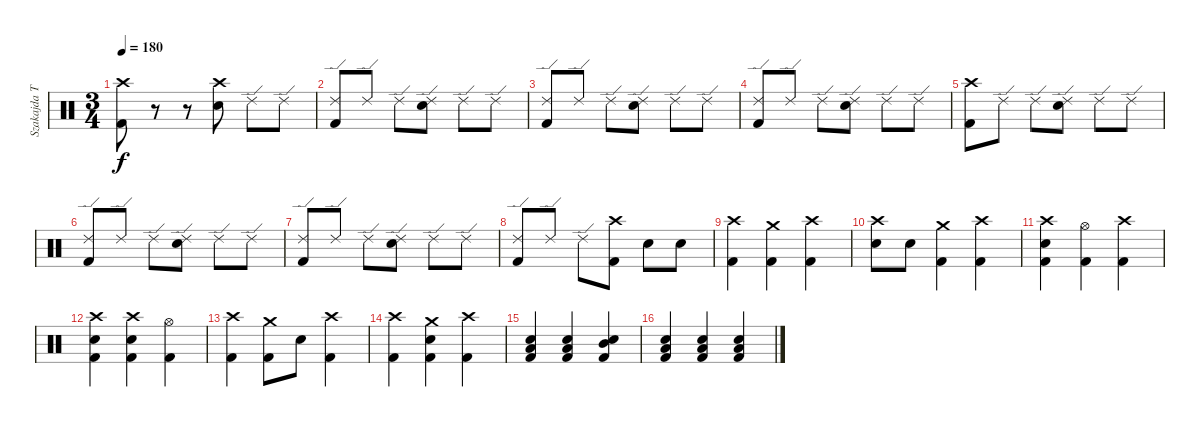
\track ("Szakajda Tibi" "Szakajda T") {instrument percussion}
\staff {score}
\articulation defaults
\ts (3 4)
\tempo 180
\clef neutral
\ks c
("Crash high (hit)" "Kick (hit) 2").8{dy f} r.8 r.8 ("Crash high (hit)" "Electric Snare (hit)").8 "Ride (edge) 2".8 "Ride (edge) 2".8 |
("Ride (edge) 2" "Kick (hit) 2").8 "Ride (edge) 2".8 "Ride (edge) 2".8 ("Ride (edge) 2" "Electric Snare (hit)").8 "Ride (edge) 2".8 "Ride (edge) 2".8 |
("Ride (edge) 2" "Kick (hit) 2").8 "Ride (edge) 2".8 "Ride (edge) 2".8 ("Ride (edge) 2" "Electric Snare (hit)").8 "Ride (edge) 2".8 "Ride (edge) 2".8 |
("Ride (edge) 2" "Kick (hit) 2").8 "Ride (edge) 2".8 "Ride (edge) 2".8 ("Ride (edge) 2" "Electric Snare (hit)").8 "Ride (edge) 2".8 "Ride (edge) 2".8 |
("Crash high (hit)" "Kick (hit) 2").8 "Ride (edge) 2".8 "Ride (edge) 2".8 ("Ride (edge) 2" "Electric Snare (hit)").8 "Ride (edge) 2".8 "Ride (edge) 2".8 |
("Ride (edge) 2" "Kick (hit) 2").8 "Ride (edge) 2".8 "Ride (edge) 2".8 ("Ride (edge) 2" "Electric Snare (hit)").8 "Ride (edge) 2".8 "Ride (edge) 2".8 |
("Ride (edge) 2" "Kick (hit) 2").8 "Ride (edge) 2".8 "Ride (edge) 2".8 ("Ride (edge) 2" "Electric Snare (hit)").8 "Ride (edge) 2".8 "Ride (edge) 2".8 |
("Ride (edge) 2" "Kick (hit) 2").8 "Ride (edge) 2".8 "Ride (edge) 2".8 ("Crash high (hit)" "Kick (hit) 2").8 "Electric Snare (hit)".8 "Electric Snare (hit)".8 |
("Crash high (hit)" "Kick (hit) 2").4 ("Crash medium (hit)" "Kick (hit) 2").4 ("Crash high (hit)" "Kick (hit) 2").4 |
("Crash high (hit)" "Electric Snare (hit)").8 "Electric Snare (hit)".8 ("Crash medium (hit)" "Kick (hit) 2").4 ("Crash high (hit)" "Kick (hit) 2").4 |
("Crash high (hit)" "Electric Snare (hit)" "Kick (hit) 2").4 ("Hi-Hat (open)" "Kick (hit) 2").4 ("Crash high (hit)" "Kick (hit) 2").4 |
("Crash high (hit)" "Electric Snare (hit)" "Kick (hit) 2").4 ("Crash high (hit)" "Electric Snare (hit)" "Kick (hit) 2").4 ("Hi-Hat (open)" "Kick (hit) 2").4 |
("Crash high (hit)" "Kick (hit) 2").4 ("Crash medium (hit)" "Kick (hit) 2").8 "Electric Snare (hit)".8 ("Crash high (hit)" "Kick (hit) 2").4 |
("Crash high (hit)" "Kick (hit) 2").4 ("Crash medium (hit)" "Electric Snare (hit)" "Kick (hit) 2").4 ("Crash high (hit)" "Kick (hit) 2").4 |
("Low Floor Tom (hit)" "Electric Snare (hit)" "Kick (hit) 2").4 ("Low Tom (hit)" "Electric Snare (hit)" "Kick (hit) 2").4 ("Mid Tom (hit)" "Electric Snare (hit)" "Kick (hit) 2").4 |
("Low Floor Tom (hit)" "Electric Snare (hit)" "Kick (hit) 2").4 ("Low Tom (hit)" "Electric Snare (hit)" "Kick (hit) 2").4 ("Low Floor Tom (hit)" "Electric Snare (hit)" "Kick (hit) 2").4
